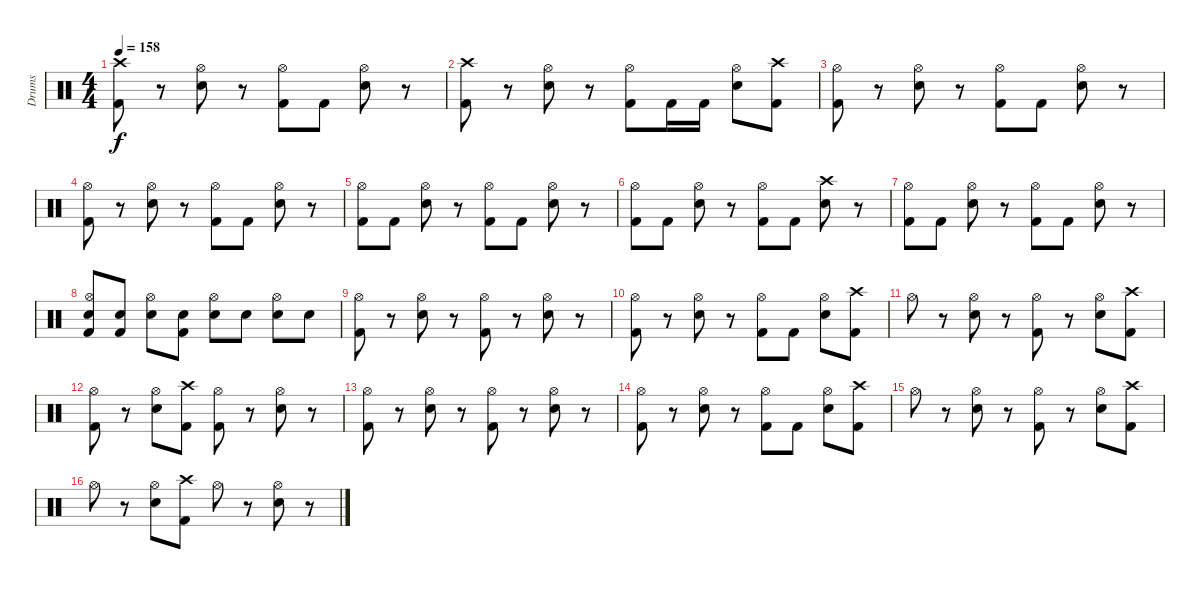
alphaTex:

\track ("Drums" "Drums") {instrument percussion}
\staff {score}
\articulation defaults
\ts (4 4)
\tempo 158
\clef neutral
\ks c
("Crash high (hit)" "Kick (hit) 2").8{dy f} r.8 ("Hi-Hat (open)" "Snare (hit) 2").8 r.8 ("Hi-Hat (open)" "Kick (hit) 2").8 "Kick (hit) 2".8 ("Hi-Hat (open)" "Snare (hit) 2").8 r.8 |
("Crash high (hit)" "Kick (hit) 2").8 r.8 ("Hi-Hat (open)" "Snare (hit) 2").8 r.8 ("Hi-Hat (open)" "Kick (hit) 2").8 "Kick (hit) 2".16 "Kick (hit) 2".16 ("Hi-Hat (open)" "Snare (hit) 2").8 ("Crash high (hit)" "Kick (hit) 2").8 |
("Hi-Hat (open)" "Kick (hit) 2").8 r.8 ("Hi-Hat (open)" "Snare (hit) 2").8 r.8 ("Hi-Hat (open)" "Kick (hit) 2").8 "Kick (hit) 2".8 ("Hi-Hat (open)" "Snare (hit) 2").8 r.8 |
("Hi-Hat (open)" "Kick (hit) 2").8 r.8 ("Hi-Hat (open)" "Snare (hit) 2").8 r.8 ("Hi-Hat (open)" "Kick (hit) 2").8 "Kick (hit) 2".8 ("Hi-Hat (open)" "Snare (hit) 2").8 r.8 |
("Hi-Hat (open)" "Kick (hit) 2").8 "Kick (hit) 2".8 ("Hi-Hat (open)" "Snare (hit) 2").8 r.8 ("Hi-Hat (open)" "Kick (hit) 2").8 "Kick (hit) 2".8 ("Hi-Hat (open)" "Snare (hit) 2").8 r.8 |
("Hi-Hat (open)" "Kick (hit) 2").8 "Kick (hit) 2".8 ("Hi-Hat (open)" "Snare (hit) 2").8 r.8 ("Hi-Hat (open)" "Kick (hit) 2").8 "Kick (hit) 2".8 ("Crash high (hit)" "Snare (hit) 2").8 r.8 |
("Hi-Hat (open)" "Kick (hit) 2").8 "Kick (hit) 2".8 ("Hi-Hat (open)" "Snare (hit) 2").8 r.8 ("Hi-Hat (open)" "Kick (hit) 2").8 "Kick (hit) 2".8 ("Hi-Hat (open)" "Snare (hit) 2").8 r.8 |
("Hi-Hat (open)" "Snare (hit) 2" "Kick (hit) 2").8 ("Snare (hit) 2" "Kick (hit) 2").8 ("Hi-Hat (open)" "Snare (hit) 2").8 ("Snare (hit) 2" "Kick (hit) 2").8 ("Hi-Hat (open)" "Snare (hit) 2").8 "Snare (hit) 2".8 ("Hi-Hat (open)" "Snare (hit) 2").8 "Snare (hit) 2".8 |
("Hi-Hat (open)" "Kick (hit) 2").8 r.8 ("Hi-Hat (open)" "Snare (hit) 2").8 r.8 ("Hi-Hat (open)" "Kick (hit) 2").8 r.8 ("Hi-Hat (open)" "Snare (hit) 2").8 r.8 |
("Hi-Hat (open)" "Kick (hit) 2").8 r.8 ("Hi-Hat (open)" "Snare (hit) 2").8 r.8 ("Hi-Hat (open)" "Kick (hit) 2").8 "Kick (hit) 2".8 ("Hi-Hat (open)" "Snare (hit) 2").8 ("Crash high (hit)" "Kick (hit) 2").8 |
"Hi-Hat (open)".8 r.8 ("Hi-Hat (open)" "Snare (hit) 2").8 r.8 ("Hi-Hat (open)" "Kick (hit) 2").8 r.8 ("Hi-Hat (open)" "Snare (hit) 2").8 ("Crash high (hit)" "Kick (hit) 2").8 |
("Hi-Hat (open)" "Kick (hit) 2").8 r.8 ("Hi-Hat (open)" "Snare (hit) 2").8 ("Crash high (hit)" "Kick (hit) 2").8 ("Hi-Hat (open)" "Kick (hit) 2").8 r.8 ("Hi-Hat (open)" "Snare (hit) 2").8 r.8 |
("Hi-Hat (open)" "Kick (hit) 2").8 r.8 ("Hi-Hat (open)" "Snare (hit) 2").8 r.8 ("Hi-Hat (open)" "Kick (hit) 2").8 r.8 ("Hi-Hat (open)" "Snare (hit) 2").8 r.8 |
("Hi-Hat (open)" "Kick (hit) 2").8 r.8 ("Hi-Hat (open)" "Snare (hit) 2").8 r.8 ("Hi-Hat (open)" "Kick (hit) 2").8 "Kick (hit) 2".8 ("Hi-Hat (open)" "Snare (hit) 2").8 ("Crash high (hit)" "Kick (hit) 2").8 |
"Hi-Hat (open)".8 r.8 ("Hi-Hat (open)" "Snare (hit) 2").8 r.8 ("Hi-Hat (open)" "Kick (hit) 2").8 r.8 ("Hi-Hat (open)" "Snare (hit) 2").8 ("Crash high (hit)" "Kick (hit) 2").8 |
"Hi-Hat (open)".8 r.8 ("Hi-Hat (open)" "Snare (hit) 2").8 ("Crash high (hit)" "Kick (hit) 2").8 "Hi-Hat (open)".8 r.8 ("Hi-Hat (open)" "Snare (hit) 2").8 r.8
